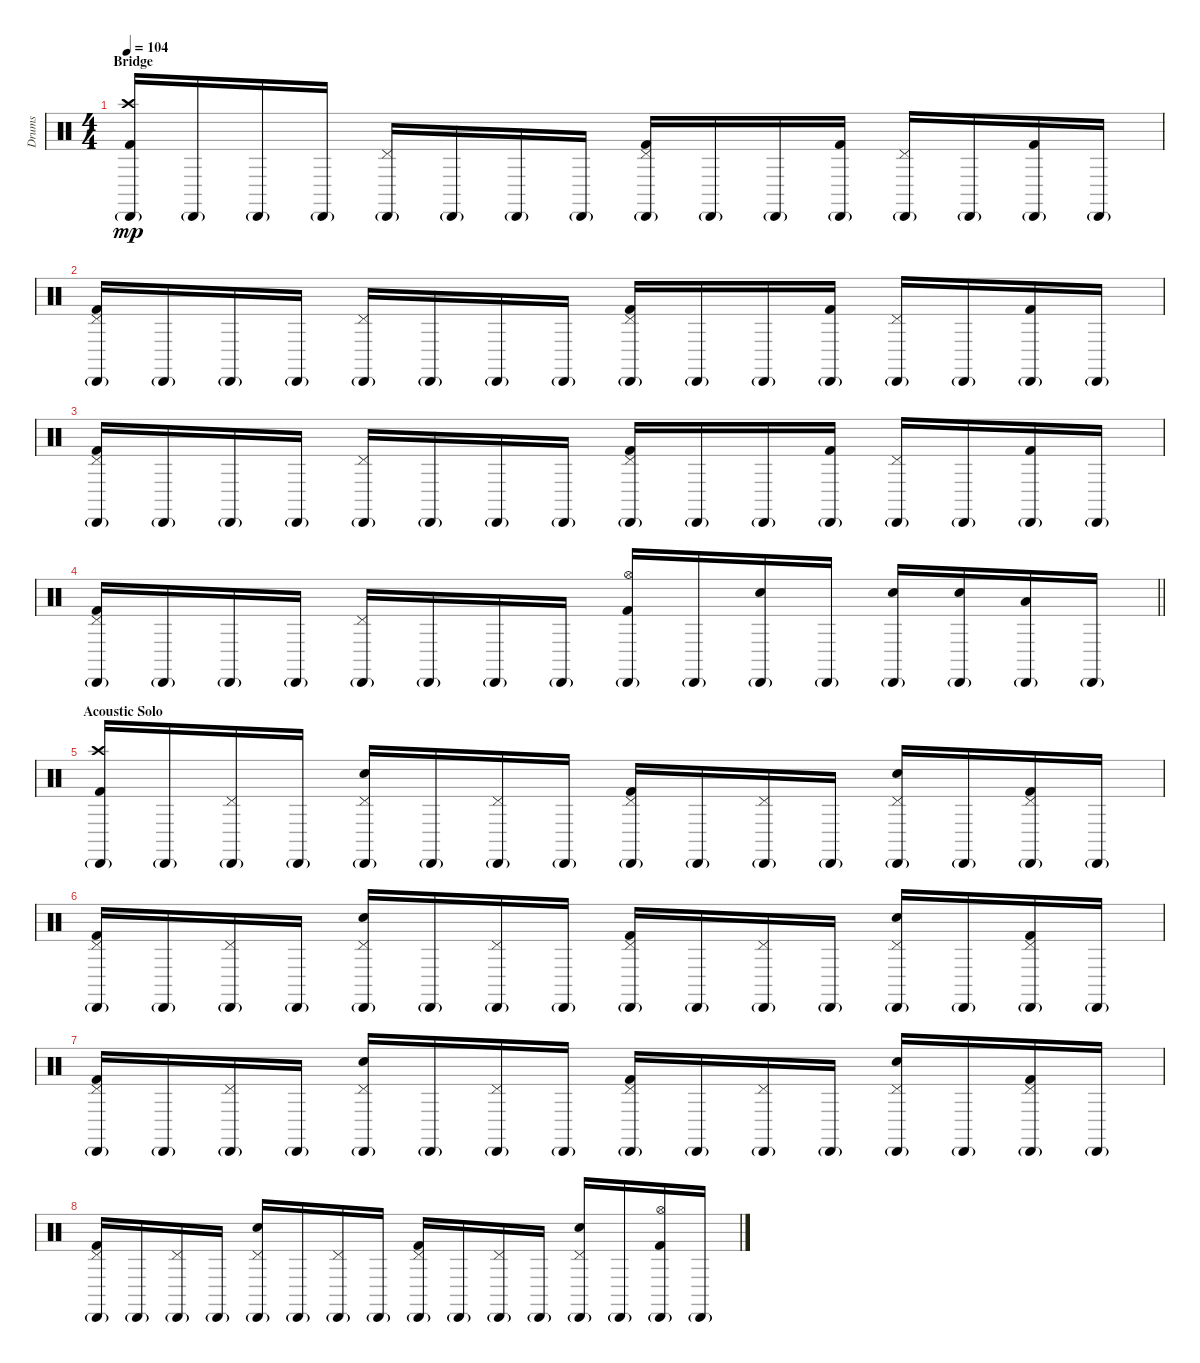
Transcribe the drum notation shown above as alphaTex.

\track ("Drums" "Drums") {instrument percussion}
\staff {score}
\articulation defaults
\ts (4 4)
\section ("" "Bridge")
\tempo 104
\clef neutral
\ks c
("Crash high (hit)" "Cabasa (hit)"{g} "Kick (hit) 2").16{dy mp} "Cabasa (hit)"{g}.16 "Cabasa (hit)"{g}.16 "Cabasa (hit)"{g}.16 ("Pedal Hi-Hat (hit)" "Cabasa (hit)"{g}).16 "Cabasa (hit)"{g}.16 "Cabasa (hit)"{g}.16 "Cabasa (hit)"{g}.16 ("Pedal Hi-Hat (hit)" "Cabasa (hit)"{g} "Kick (hit) 2").16 "Cabasa (hit)"{g}.16 "Cabasa (hit)"{g}.16 ("Cabasa (hit)"{g} "Kick (hit) 2").16 ("Pedal Hi-Hat (hit)" "Cabasa (hit)"{g}).16 "Cabasa (hit)"{g}.16 ("Cabasa (hit)"{g} "Kick (hit) 2").16 "Cabasa (hit)"{g}.16 |
("Pedal Hi-Hat (hit)" "Cabasa (hit)"{g} "Kick (hit) 2").16 "Cabasa (hit)"{g}.16 "Cabasa (hit)"{g}.16 "Cabasa (hit)"{g}.16 ("Pedal Hi-Hat (hit)" "Cabasa (hit)"{g}).16 "Cabasa (hit)"{g}.16 "Cabasa (hit)"{g}.16 "Cabasa (hit)"{g}.16 ("Pedal Hi-Hat (hit)" "Cabasa (hit)"{g} "Kick (hit) 2").16 "Cabasa (hit)"{g}.16 "Cabasa (hit)"{g}.16 ("Cabasa (hit)"{g} "Kick (hit) 2").16 ("Pedal Hi-Hat (hit)" "Cabasa (hit)"{g}).16 "Cabasa (hit)"{g}.16 ("Cabasa (hit)"{g} "Kick (hit) 2").16 "Cabasa (hit)"{g}.16 |
("Pedal Hi-Hat (hit)" "Cabasa (hit)"{g} "Kick (hit) 2").16 "Cabasa (hit)"{g}.16 "Cabasa (hit)"{g}.16 "Cabasa (hit)"{g}.16 ("Pedal Hi-Hat (hit)" "Cabasa (hit)"{g}).16 "Cabasa (hit)"{g}.16 "Cabasa (hit)"{g}.16 "Cabasa (hit)"{g}.16 ("Pedal Hi-Hat (hit)" "Cabasa (hit)"{g} "Kick (hit) 2").16 "Cabasa (hit)"{g}.16 "Cabasa (hit)"{g}.16 ("Cabasa (hit)"{g} "Kick (hit) 2").16 ("Pedal Hi-Hat (hit)" "Cabasa (hit)"{g}).16 "Cabasa (hit)"{g}.16 ("Cabasa (hit)"{g} "Kick (hit) 2").16 "Cabasa (hit)"{g}.16 |
\barLineRight lightlight
("Pedal Hi-Hat (hit)" "Cabasa (hit)"{g} "Kick (hit) 2").16 "Cabasa (hit)"{g}.16 "Cabasa (hit)"{g}.16 "Cabasa (hit)"{g}.16 ("Pedal Hi-Hat (hit)" "Cabasa (hit)"{g}).16 "Cabasa (hit)"{g}.16 "Cabasa (hit)"{g}.16 "Cabasa (hit)"{g}.16 ("Hi-Hat (open)" "Cabasa (hit)"{g} "Kick (hit) 2").16 "Cabasa (hit)"{g}.16 ("Snare (hit) 2" "Cabasa (hit)"{g}).16 "Cabasa (hit)"{g}.16 ("Snare (hit) 2" "Cabasa (hit)"{g}).16 ("Snare (hit) 2" "Cabasa (hit)"{g}).16 ("Low Tom (hit)" "Cabasa (hit)"{g}).16 "Cabasa (hit)"{g}.16 |
\section ("" "Acoustic Solo")
("Crash high (hit)" "Cabasa (hit)"{g} "Kick (hit) 2").16 "Cabasa (hit)"{g}.16 ("Pedal Hi-Hat (hit)" "Cabasa (hit)"{g}).16 "Cabasa (hit)"{g}.16 ("Snare (hit) 2" "Pedal Hi-Hat (hit)" "Cabasa (hit)"{g}).16 "Cabasa (hit)"{g}.16 ("Pedal Hi-Hat (hit)" "Cabasa (hit)"{g}).16 "Cabasa (hit)"{g}.16 ("Pedal Hi-Hat (hit)" "Cabasa (hit)"{g} "Kick (hit) 2").16 "Cabasa (hit)"{g}.16 ("Pedal Hi-Hat (hit)" "Cabasa (hit)"{g}).16 "Cabasa (hit)"{g}.16 ("Snare (hit) 2" "Pedal Hi-Hat (hit)" "Cabasa (hit)"{g}).16 "Cabasa (hit)"{g}.16 ("Pedal Hi-Hat (hit)" "Cabasa (hit)"{g} "Kick (hit) 2").16 "Cabasa (hit)"{g}.16 |
("Pedal Hi-Hat (hit)" "Cabasa (hit)"{g} "Kick (hit) 2").16 "Cabasa (hit)"{g}.16 ("Pedal Hi-Hat (hit)" "Cabasa (hit)"{g}).16 "Cabasa (hit)"{g}.16 ("Snare (hit) 2" "Pedal Hi-Hat (hit)" "Cabasa (hit)"{g}).16 "Cabasa (hit)"{g}.16 ("Pedal Hi-Hat (hit)" "Cabasa (hit)"{g}).16 "Cabasa (hit)"{g}.16 ("Pedal Hi-Hat (hit)" "Cabasa (hit)"{g} "Kick (hit) 2").16 "Cabasa (hit)"{g}.16 ("Pedal Hi-Hat (hit)" "Cabasa (hit)"{g}).16 "Cabasa (hit)"{g}.16 ("Snare (hit) 2" "Pedal Hi-Hat (hit)" "Cabasa (hit)"{g}).16 "Cabasa (hit)"{g}.16 ("Pedal Hi-Hat (hit)" "Cabasa (hit)"{g} "Kick (hit) 2").16 "Cabasa (hit)"{g}.16 |
("Pedal Hi-Hat (hit)" "Cabasa (hit)"{g} "Kick (hit) 2").16 "Cabasa (hit)"{g}.16 ("Pedal Hi-Hat (hit)" "Cabasa (hit)"{g}).16 "Cabasa (hit)"{g}.16 ("Snare (hit) 2" "Pedal Hi-Hat (hit)" "Cabasa (hit)"{g}).16 "Cabasa (hit)"{g}.16 ("Pedal Hi-Hat (hit)" "Cabasa (hit)"{g}).16 "Cabasa (hit)"{g}.16 ("Pedal Hi-Hat (hit)" "Cabasa (hit)"{g} "Kick (hit) 2").16 "Cabasa (hit)"{g}.16 ("Pedal Hi-Hat (hit)" "Cabasa (hit)"{g}).16 "Cabasa (hit)"{g}.16 ("Snare (hit) 2" "Pedal Hi-Hat (hit)" "Cabasa (hit)"{g}).16 "Cabasa (hit)"{g}.16 ("Pedal Hi-Hat (hit)" "Cabasa (hit)"{g} "Kick (hit) 2").16 "Cabasa (hit)"{g}.16 |
("Pedal Hi-Hat (hit)" "Cabasa (hit)"{g} "Kick (hit) 2").16 "Cabasa (hit)"{g}.16 ("Pedal Hi-Hat (hit)" "Cabasa (hit)"{g}).16 "Cabasa (hit)"{g}.16 ("Snare (hit) 2" "Pedal Hi-Hat (hit)" "Cabasa (hit)"{g}).16 "Cabasa (hit)"{g}.16 ("Pedal Hi-Hat (hit)" "Cabasa (hit)"{g}).16 "Cabasa (hit)"{g}.16 ("Pedal Hi-Hat (hit)" "Cabasa (hit)"{g} "Kick (hit) 2").16 "Cabasa (hit)"{g}.16 ("Pedal Hi-Hat (hit)" "Cabasa (hit)"{g}).16 "Cabasa (hit)"{g}.16 ("Snare (hit) 2" "Pedal Hi-Hat (hit)" "Cabasa (hit)"{g}).16 "Cabasa (hit)"{g}.16 ("Hi-Hat (open)" "Cabasa (hit)"{g} "Kick (hit) 2").16 "Cabasa (hit)"{g}.16
